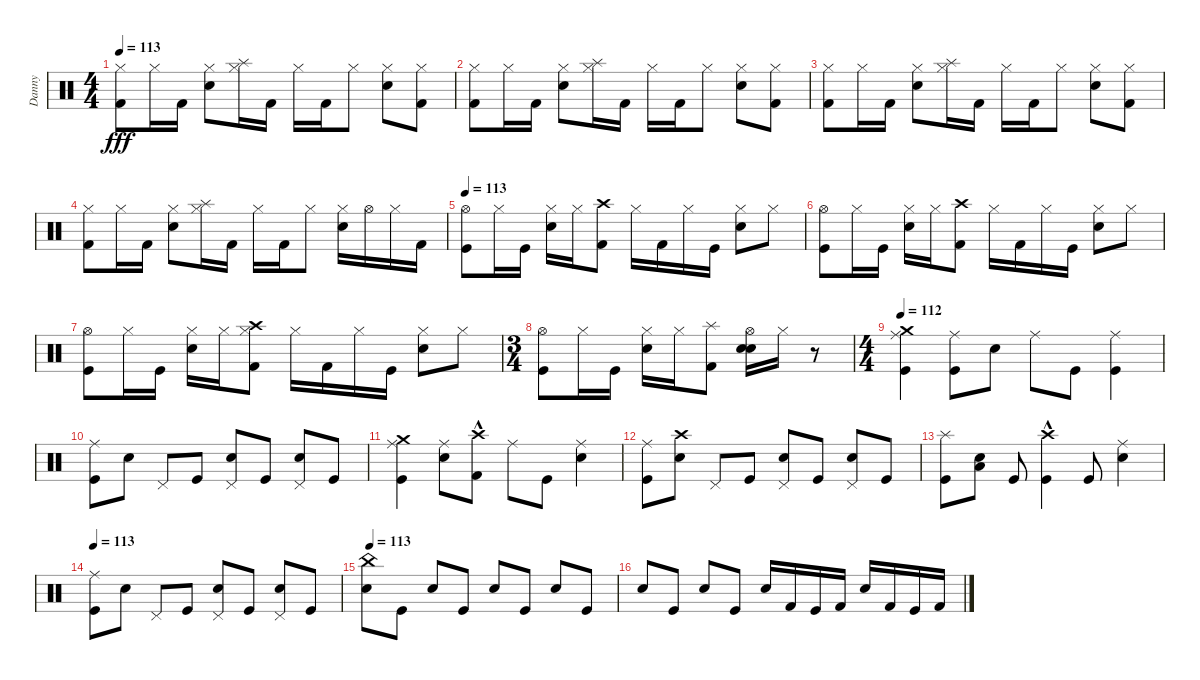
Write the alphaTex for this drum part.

\track ("Danny" "Danny") {instrument percussion}
\staff {score}
\articulation defaults
\ts (4 4)
\tempo 113
\clef neutral
\ks c
("Kick (hit) 2" "Hi-Hat (closed)").8{dy fff} "Hi-Hat (closed)".16 "Kick (hit) 2".16 ("Snare (hit) 2" "Hi-Hat (closed)").8 ("Splash (hit)" "Hi-Hat (closed)").16 "Kick (hit) 2".16 "Hi-Hat (closed)".16 "Kick (hit) 2".16 "Hi-Hat (closed)".8 ("Snare (hit) 2" "Hi-Hat (closed)").8 ("Kick (hit) 2" "Hi-Hat (closed)").8 |
("Kick (hit) 2" "Hi-Hat (closed)").8 "Hi-Hat (closed)".16 "Kick (hit) 2".16 ("Snare (hit) 2" "Hi-Hat (closed)").8 ("Splash (hit)" "Hi-Hat (closed)").16 "Kick (hit) 2".16 "Hi-Hat (closed)".16 "Kick (hit) 2".16 "Hi-Hat (closed)".8 ("Snare (hit) 2" "Hi-Hat (closed)").8 ("Kick (hit) 2" "Hi-Hat (closed)").8 |
("Kick (hit) 2" "Hi-Hat (closed)").8 "Hi-Hat (closed)".16 "Kick (hit) 2".16 ("Snare (hit) 2" "Hi-Hat (closed)").8 ("Splash (hit)" "Hi-Hat (closed)").16 "Kick (hit) 2".16 "Hi-Hat (closed)".16 "Kick (hit) 2".16 "Hi-Hat (closed)".8 ("Snare (hit) 2" "Hi-Hat (closed)").8 ("Kick (hit) 2" "Hi-Hat (closed)").8 |
("Kick (hit) 2" "Hi-Hat (closed)").8 "Hi-Hat (closed)".16 "Kick (hit) 2".16 ("Snare (hit) 2" "Hi-Hat (closed)").8 ("Splash (hit)" "Hi-Hat (closed)").16 "Kick (hit) 2".16 "Hi-Hat (closed)".16 "Kick (hit) 2".16 "Hi-Hat (closed)".8 ("Snare (hit) 2" "Hi-Hat (closed)").16 "Hi-Hat (open)".16 "Hi-Hat (closed)".16 "Kick (hit) 2".16 |
\tempo 113
("Hi-Hat (open)" "Kick (hit)").8 "Hi-Hat (closed)".16 "Kick (hit)".16 ("Hi-Hat (closed)" "Snare (hit) 2").16 "Hi-Hat (closed)".16 ("Kick (hit) 2" "Crash high (hit)").8 "Hi-Hat (closed)".16 "Kick (hit) 2".16 "Hi-Hat (closed)".16 "Kick (hit)".16 ("Snare (hit) 2" "Hi-Hat (closed)").8 "Hi-Hat (closed)".8 |
("Hi-Hat (open)" "Kick (hit)").8 "Hi-Hat (closed)".16 "Kick (hit)".16 ("Hi-Hat (closed)" "Snare (hit) 2").16 "Hi-Hat (closed)".16 ("Kick (hit) 2" "Crash high (hit)").8 "Hi-Hat (closed)".16 "Kick (hit) 2".16 "Hi-Hat (closed)".16 "Kick (hit)".16 ("Snare (hit) 2" "Hi-Hat (closed)").8 "Hi-Hat (closed)".8 |
("Hi-Hat (open)" "Kick (hit)").8 "Hi-Hat (closed)".16 "Kick (hit)".16 ("Hi-Hat (closed)" "Snare (hit) 2").16 "Hi-Hat (closed)".16 ("Crash high (hit)" "Hi-Hat (closed)" "Kick (hit) 2").8 "Hi-Hat (closed)".16 "Kick (hit) 2".16 "Hi-Hat (closed)".16 "Kick (hit)".16 ("Snare (hit) 2" "Hi-Hat (closed)").8 "Hi-Hat (closed)".8 |
\ts (3 4)
("Hi-Hat (open)" "Kick (hit)").8 "Hi-Hat (closed)".16 "Kick (hit)".16 ("Hi-Hat (closed)" "Snare (hit) 2").16 "Hi-Hat (closed)".16 ("Splash (hit)" "Kick (hit) 2").8 ("Snare (hit) 2" "Hi-Hat (open)" "Snare (hit) 2").16 "Hi-Hat (closed)".16 r.8 |
\ts (4 4)
\tempo 112
("Ride (middle)" "Crash medium (hit)" "Kick (hit)").4 ("Ride (middle)" "Kick (hit)").8 "Snare (hit) 2".8 "Ride (middle)".8 "Kick (hit)".8 ("Ride (middle)" "Kick (hit)").4 |
("Ride (middle)" "Kick (hit)").8 "Snare (hit) 2".8 "Pedal Hi-Hat (hit)".8 "Kick (hit)".8 ("Pedal Hi-Hat (hit)" "Snare (hit) 2").8 "Kick (hit)".8 ("Pedal Hi-Hat (hit)" "Snare (hit) 2").8 "Kick (hit)".8 |
("Ride (middle)" "Crash medium (hit)" "Kick (hit)").4 ("Ride (middle)" "Snare (hit) 2").8 ("Crash high (hit)"{hac} "Kick (hit) 2").8 "Ride (middle)".8 "Kick (hit)".8 ("Ride (middle)" "Snare (hit) 2").4 |
("Ride (middle)" "Kick (hit)").8 ("Crash high (hit)" "Snare (hit) 2").8 "Pedal Hi-Hat (hit)".8 "Kick (hit)".8 ("Pedal Hi-Hat (hit)" "Snare (hit) 2").8 "Kick (hit)".8 ("Pedal Hi-Hat (hit)" "Snare (hit) 2").8 "Kick (hit)".8 |
("Splash (hit)" "Kick (hit)").8 ("Low Tom (hit)" "Snare (hit) 2").8 "Kick (hit)".8 ("Kick (hit)" "Crash high (hit)"{hac}).4 "Kick (hit)".8 ("Ride (middle)" "Snare (hit) 2").4 |
\tempo 113
("Ride (middle)" "Kick (hit)").8 "Snare (hit) 2".8 "Pedal Hi-Hat (hit)".8 "Kick (hit)".8 ("Pedal Hi-Hat (hit)" "Snare (hit) 2").8 "Kick (hit)".8 ("Pedal Hi-Hat (hit)" "Snare (hit) 2").8 "Kick (hit)".8 |
\tempo 113
("Snare (hit) 2" "China (hit)").8 "Kick (hit)".8 "Snare (hit) 2".8 "Kick (hit)".8 "Snare (hit) 2".8 "Kick (hit)".8 "Snare (hit) 2".8 "Kick (hit)".8 |
"Snare (hit) 2".8 "Kick (hit)".8 "Snare (hit) 2".8 "Kick (hit)".8 "Snare (hit) 2".16 "Kick (hit) 2".16 "Kick (hit)".16 "Kick (hit) 2".16 "Snare (hit) 2".16 "Kick (hit) 2".16 "Kick (hit)".16 "Kick (hit) 2".16
